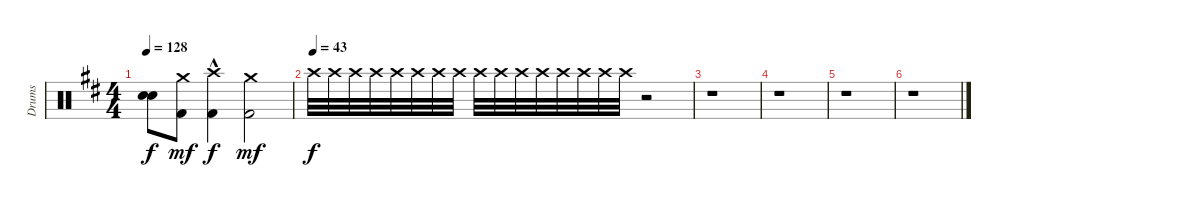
\track ("Drums" "Drums") {instrument percussion}
\staff {score}
\articulation defaults
\ts (4 4)
\tempo 128
\clef neutral
\ks d
("Snare (hit)"{t} "Snare (hit)"{t}).8{dy f} ("Kick (hit) 2" "Crash medium (hit)").8{dy mf} ("Kick (hit) 2" "Crash high (hit)"{hac}).4{dy f} ("Kick (hit) 2" "Crash medium (hit)").2{dy mf} |
\tempo (43)
"Crash high (hit)".32{dy f} "Crash high (hit)".32 "Crash high (hit)".32 "Crash high (hit)".32 "Crash high (hit)".32 "Crash high (hit)".32 "Crash high (hit)".32 "Crash high (hit)".32 "Crash high (hit)".32 "Crash high (hit)".32 "Crash high (hit)".32 "Crash high (hit)".32 "Crash high (hit)".32 "Crash high (hit)".32 "Crash high (hit)".32 "Crash high (hit)".32 r.2 |
r.1 |
r.1 |
r.1 |
r.1
